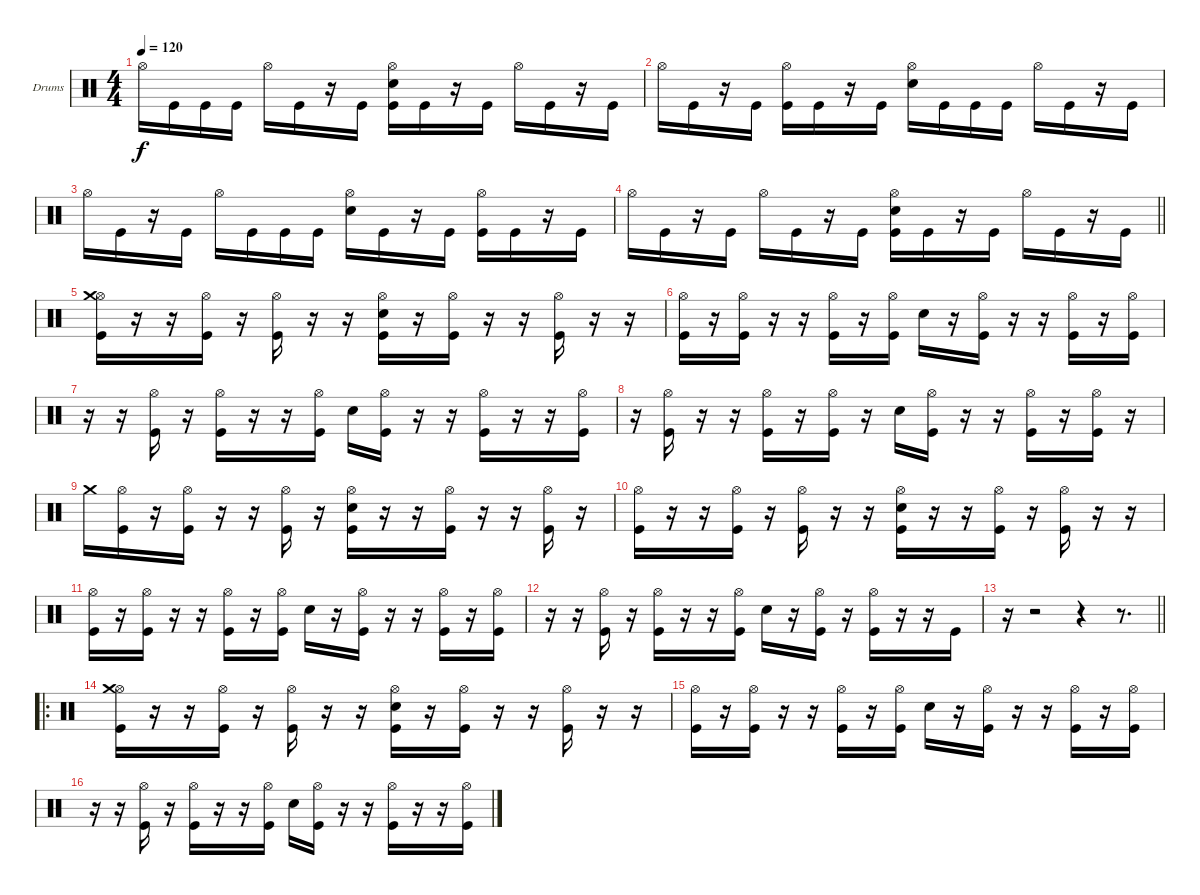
\bracketExtendMode groupsimilarinstruments
\firstSystemTrackNameOrientation horizontal
\otherSystemsTrackNameOrientation horizontal
\track ("Drumkit" "Drums") {instrument percussion}
\staff {score}
\articulation defaults
\ts (4 4)
\tempo 120
\clef neutral
\ks c "Hi-Hat (open)".16{dy f} "Kick (hit)".16 "Kick (hit)".16 "Kick (hit)".16 "Hi-Hat (open)".16 "Kick (hit)".16
r.16 "Kick (hit)".16 ("Hi-Hat (open)" "Snare (hit) 2" "Kick (hit)").16 "Kick (hit)".16 r.16 "Kick (hit)".16 "Hi-Hat (open)".16 "Kick (hit)".16 r.16 "Kick (hit)".16 |
"Hi-Hat (open)".16 "Kick (hit)".16 r.16 "Kick (hit)".16 ("Hi-Hat (open)" "Kick (hit)").16 "Kick (hit)".16 r.16 "Kick (hit)".16 ("Hi-Hat (open)" "Snare (hit) 2").16 "Kick (hit)".16 "Kick (hit)".16 "Kick (hit)".16 "Hi-Hat (open)".16 "Kick (hit)".16 r.16 "Kick (hit)".16 |
"Hi-Hat (open)".16 "Kick (hit)".16 r.16 "Kick (hit)".16 "Hi-Hat (open)".16 "Kick (hit)".16 "Kick (hit)".16 "Kick (hit)".16 ("Hi-Hat (open)" "Snare (hit) 2").16 "Kick (hit)".16 r.16 "Kick (hit)".16 ("Hi-Hat (open)" "Kick (hit)").16 "Kick (hit)".16 r.16 "Kick (hit)".16 |
\barLineRight lightlight "Hi-Hat (open)".16 "Kick (hit)".16
r.16 "Kick (hit)".16 "Hi-Hat (open)".16 "Kick (hit)".16 r.16 "Kick (hit)".16 ("Hi-Hat (open)" "Snare (hit) 2" "Kick (hit)").16 "Kick (hit)".16 r.16 "Kick (hit)".16 "Hi-Hat (open)".16 "Kick (hit)".16 r.16 "Kick (hit)".16 |
("Hi-Hat (open)" "Crash medium (hit)" "Kick (hit)").16 r.16 r.16 ("Hi-Hat (open)" "Kick (hit)").16 r.16 ("Hi-Hat (open)" "Kick (hit)").16 r.16 r.16 ("Hi-Hat (open)" "Snare (hit) 2" "Kick (hit)").16 r.16 ("Hi-Hat (open)" "Kick (hit)").16 r.16 r.16 ("Hi-Hat (open)" "Kick (hit)").16 r.16 r.16 |
("Hi-Hat (open)" "Kick (hit)").16 r.16 ("Hi-Hat (open)" "Kick (hit)").16 r.16 r.16 ("Hi-Hat (open)" "Kick (hit)").16 r.16 ("Hi-Hat (open)" "Kick (hit)").16 "Snare (hit) 2".16 r.16 ("Hi-Hat (open)" "Kick (hit)").16 r.16 r.16 ("Hi-Hat (open)" "Kick (hit)").16 r.16 ("Hi-Hat (open)" "Kick (hit)").16 |
r.16 r.16 ("Hi-Hat (open)" "Kick (hit)").16 r.16 ("Hi-Hat (open)" "Kick (hit)").16 r.16 r.16 ("Hi-Hat (open)" "Kick (hit)").16 "Snare (hit) 2".16 ("Hi-Hat (open)" "Kick (hit)").16 r.16 r.16 ("Hi-Hat (open)" "Kick (hit)").16 r.16 r.16 ("Hi-Hat (open)" "Kick (hit)").16 |
r.16 ("Hi-Hat (open)" "Kick (hit)").16 r.16 r.16 ("Hi-Hat (open)" "Kick (hit)").16 r.16 ("Hi-Hat (open)" "Kick (hit)").16 r.16 "Snare (hit) 2".16 ("Hi-Hat (open)" "Kick (hit)").16 r.16 r.16 ("Hi-Hat (open)" "Kick (hit)").16 r.16 ("Hi-Hat (open)" "Kick (hit)").16 r.16 |
"Crash medium (hit)".16 ("Hi-Hat (open)" "Kick (hit)").16 r.16 ("Hi-Hat (open)" "Kick (hit)").16 r.16 r.16 ("Hi-Hat (open)" "Kick (hit)").16 r.16 ("Hi-Hat (open)" "Snare (hit) 2" "Kick (hit)").16 r.16 r.16 ("Hi-Hat (open)" "Kick (hit)").16 r.16 r.16 ("Hi-Hat (open)" "Kick (hit)").16 r.16 |
("Hi-Hat (open)" "Kick (hit)").16 r.16 r.16 ("Hi-Hat (open)" "Kick (hit)").16 r.16 ("Hi-Hat (open)" "Kick (hit)").16 r.16 r.16 ("Hi-Hat (open)" "Snare (hit) 2" "Kick (hit)").16 r.16 r.16 ("Hi-Hat (open)" "Kick (hit)").16 r.16 ("Hi-Hat (open)" "Kick (hit)").16 r.16 r.16 |
("Hi-Hat (open)" "Kick (hit)").16 r.16 ("Hi-Hat (open)" "Kick (hit)").16 r.16 r.16 ("Hi-Hat (open)" "Kick (hit)").16 r.16 ("Hi-Hat (open)" "Kick (hit)").16 "Snare (hit) 2".16 r.16 ("Hi-Hat (open)" "Kick (hit)").16 r.16 r.16 ("Hi-Hat (open)" "Kick (hit)").16 r.16 ("Hi-Hat (open)" "Kick (hit)").16 |
r.16 r.16 ("Hi-Hat (open)" "Kick (hit)").16 r.16 ("Hi-Hat (open)" "Kick (hit)").16 r.16 r.16 ("Hi-Hat (open)" "Kick (hit)").16 "Snare (hit) 2".16 r.16 ("Hi-Hat (open)" "Kick (hit)").16 r.16 ("Hi-Hat (open)" "Kick (hit)").16 r.16 r.16 "Kick (hit)".16 |
\barLineRight lightlight
r.16 r.2 r.4 r.8{d} |
\ro
("Hi-Hat (open)" "Crash medium (hit)" "Kick (hit)").16 r.16 r.16 ("Hi-Hat (open)" "Kick (hit)").16 r.16 ("Hi-Hat (open)" "Kick (hit)").16 r.16 r.16 ("Hi-Hat (open)" "Snare (hit) 2" "Kick (hit)").16 r.16 ("Hi-Hat (open)" "Kick (hit)").16 r.16 r.16 ("Hi-Hat (open)" "Kick (hit)").16 r.16 r.16 |
("Hi-Hat (open)" "Kick (hit)").16 r.16 ("Hi-Hat (open)" "Kick (hit)").16 r.16 r.16 ("Hi-Hat (open)" "Kick (hit)").16 r.16 ("Hi-Hat (open)" "Kick (hit)").16 "Snare (hit) 2".16 r.16 ("Hi-Hat (open)" "Kick (hit)").16 r.16 r.16 ("Hi-Hat (open)" "Kick (hit)").16 r.16 ("Hi-Hat (open)" "Kick (hit)").16 |
r.16 r.16 ("Hi-Hat (open)" "Kick (hit)").16 r.16 ("Hi-Hat (open)" "Kick (hit)").16 r.16 r.16 ("Hi-Hat (open)" "Kick (hit)").16 "Snare (hit) 2".16 ("Hi-Hat (open)" "Kick (hit)").16 r.16 r.16 ("Hi-Hat (open)" "Kick (hit)").16 r.16 r.16 ("Hi-Hat (open)" "Kick (hit)").16
